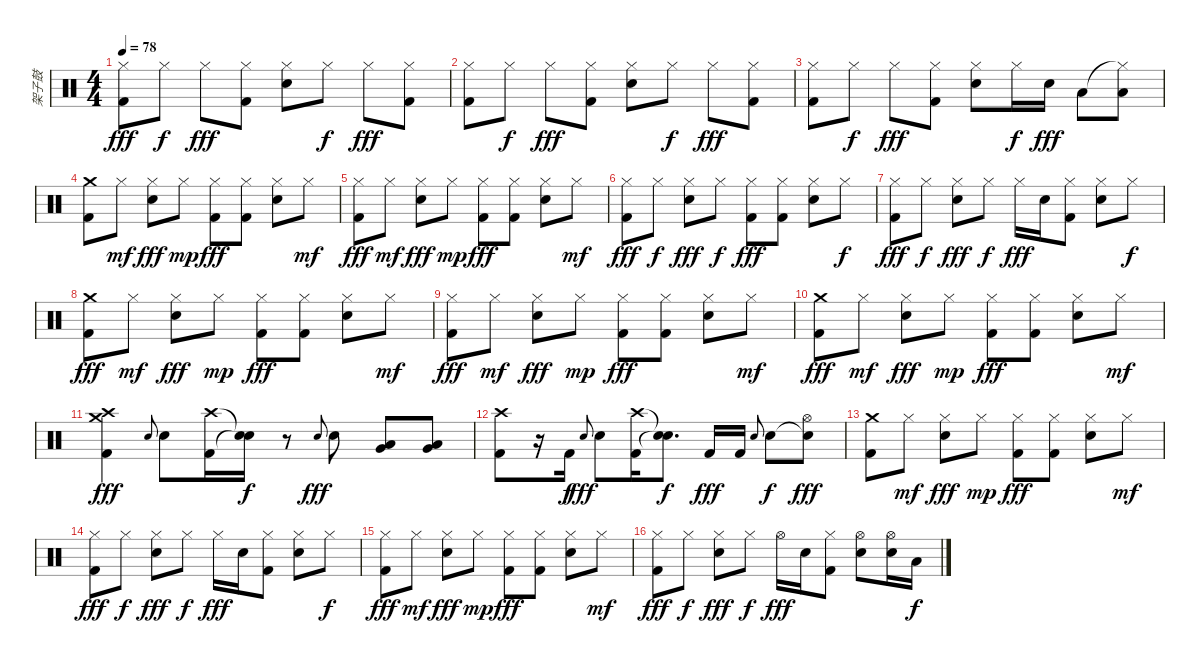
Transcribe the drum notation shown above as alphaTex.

\track ("架子鼓" "架子鼓") {instrument percussion}
\staff {score}
\articulation defaults
\ts (4 4)
\tempo 78
\clef neutral
\ks c
("Hi-Hat (closed)" "Kick (hit) 2").8{dy fff} "Hi-Hat (closed)".8{dy f} "Hi-Hat (closed)".8{dy fff} ("Hi-Hat (closed)" "Kick (hit) 2").8 ("Hi-Hat (closed)" "Electric Snare (hit)").8 "Hi-Hat (closed)".8{dy f} "Hi-Hat (closed)".8{dy fff} ("Hi-Hat (closed)" "Kick (hit) 2").8 |
("Hi-Hat (closed)" "Kick (hit) 2").8 "Hi-Hat (closed)".8{dy f} "Hi-Hat (closed)".8{dy fff} ("Hi-Hat (closed)" "Kick (hit) 2").8 ("Hi-Hat (closed)" "Electric Snare (hit)").8 "Hi-Hat (closed)".8{dy f} "Hi-Hat (closed)".8{dy fff} ("Hi-Hat (closed)" "Kick (hit) 2").8 |
("Hi-Hat (closed)" "Kick (hit) 2").8 "Hi-Hat (closed)".8{dy f} "Hi-Hat (closed)".8{dy fff} ("Hi-Hat (closed)" "Kick (hit) 2").8 ("Hi-Hat (closed)" "Electric Snare (hit)").8 "Hi-Hat (closed)".16{dy f} "Electric Snare (hit)".16{dy fff} "Low Tom (hit)".8 ("Hi-Hat (closed)"{t} "Low Floor Tom (hit)").8 |
("Crash medium (hit)" "Kick (hit) 2").8 "Hi-Hat (closed)".8{dy mf} ("Hi-Hat (closed)" "Electric Snare (hit)").8{dy fff} "Hi-Hat (closed)".8{dy mp} ("Hi-Hat (closed)" "Kick (hit) 2").8{dy fff} ("Hi-Hat (closed)" "Kick (hit) 2").8 ("Hi-Hat (closed)" "Electric Snare (hit)").8 "Hi-Hat (closed)".8{dy mf} |
("Hi-Hat (closed)" "Kick (hit) 2").8{dy fff} "Hi-Hat (closed)".8{dy mf} ("Hi-Hat (closed)" "Electric Snare (hit)").8{dy fff} "Hi-Hat (closed)".8{dy mp} ("Hi-Hat (closed)" "Kick (hit) 2").8{dy fff} ("Hi-Hat (closed)" "Kick (hit) 2").8 ("Hi-Hat (closed)" "Electric Snare (hit)").8 "Hi-Hat (closed)".8{dy mf} |
("Hi-Hat (closed)" "Kick (hit) 2").8{dy fff} "Hi-Hat (closed)".8{dy f} ("Hi-Hat (closed)" "Electric Snare (hit)").8{dy fff} "Hi-Hat (closed)".8{dy f} ("Hi-Hat (closed)" "Kick (hit) 2").8{dy fff} ("Hi-Hat (closed)" "Kick (hit) 2").8 ("Hi-Hat (closed)" "Electric Snare (hit)").8 "Hi-Hat (closed)".8{dy f} |
("Hi-Hat (closed)" "Kick (hit) 2").8{dy fff} "Hi-Hat (closed)".8{dy f} ("Hi-Hat (closed)" "Electric Snare (hit)").8{dy fff} "Hi-Hat (closed)".8{dy f} "Hi-Hat (closed)".16{dy fff} "Electric Snare (hit)".16 ("Hi-Hat (closed)" "Kick (hit) 2").8 ("Hi-Hat (closed)" "Electric Snare (hit)").8 "Hi-Hat (closed)".8{dy f} |
("Crash medium (hit)" "Kick (hit) 2").8{dy fff} "Hi-Hat (closed)".8{dy mf} ("Hi-Hat (closed)" "Electric Snare (hit)").8{dy fff} "Hi-Hat (closed)".8{dy mp} ("Hi-Hat (closed)" "Kick (hit) 2").8{dy fff} ("Hi-Hat (closed)" "Kick (hit) 2").8 ("Hi-Hat (closed)" "Electric Snare (hit)").8 "Hi-Hat (closed)".8{dy mf} |
("Hi-Hat (closed)" "Kick (hit) 2").8{dy fff} "Hi-Hat (closed)".8{dy mf} ("Hi-Hat (closed)" "Electric Snare (hit)").8{dy fff} "Hi-Hat (closed)".8{dy mp} ("Hi-Hat (closed)" "Kick (hit) 2").8{dy fff} ("Hi-Hat (closed)" "Kick (hit) 2").8 ("Hi-Hat (closed)" "Electric Snare (hit)").8 "Hi-Hat (closed)".8{dy mf} |
("Crash medium (hit)" "Kick (hit) 2").8{dy fff} "Hi-Hat (closed)".8{dy mf} ("Hi-Hat (closed)" "Electric Snare (hit)").8{dy fff} "Hi-Hat (closed)".8{dy mp} ("Hi-Hat (closed)" "Kick (hit) 2").8{dy fff} ("Hi-Hat (closed)" "Kick (hit) 2").8 ("Hi-Hat (closed)" "Electric Snare (hit)").8 "Hi-Hat (closed)".8{dy mf} |
("Crash medium (hit)" "Crash high (hit)" "Kick (hit) 2").4{dy fff} "Electric Snare (hit)".8{gr onbeat} "Electric Snare (hit)".8 ("Crash high (hit)" "Kick (hit) 2").16 ("Snare (hit)"{t} "Snare (hit)"{t}).16{dy f} r.8 "Electric Snare (hit)".8{gr onbeat dy fff} "Electric Snare (hit)".8 ("Low Tom (hit)" "Very Low Tom (hit)").8 ("Low Floor Tom (hit)" "Very Low Tom (hit)").8 |
("Crash high (hit)" "Kick (hit) 2").8 r.16 "Kick (hit) 2".16{dy f beam Down} "Electric Snare (hit)".8{gr onbeat dy fff} "Electric Snare (hit)".8 ("Crash high (hit)" "Kick (hit) 2").16 ("Snare (hit)"{t} "Snare (hit)"{t}).8{d dy f} "Kick (hit) 2".16{dy fff} "Kick (hit) 2".16 "Electric Snare (hit)".8{gr onbeat} "Electric Snare (hit)".8{dy f} ("Snare (hit)"{t} "Hi-Hat (open)").8{dy fff} |
("Crash medium (hit)" "Kick (hit) 2").8 "Hi-Hat (closed)".8{dy mf} ("Hi-Hat (closed)" "Electric Snare (hit)").8{dy fff} "Hi-Hat (closed)".8{dy mp} ("Hi-Hat (closed)" "Kick (hit) 2").8{dy fff} ("Hi-Hat (closed)" "Kick (hit) 2").8 ("Hi-Hat (closed)" "Electric Snare (hit)").8 "Hi-Hat (closed)".8{dy mf} |
("Hi-Hat (closed)" "Kick (hit) 2").8{dy fff} "Hi-Hat (closed)".8{dy f} ("Hi-Hat (closed)" "Electric Snare (hit)").8{dy fff} "Hi-Hat (closed)".8{dy f} "Hi-Hat (closed)".16{dy fff} "Electric Snare (hit)".16 ("Hi-Hat (closed)" "Kick (hit) 2").8 ("Hi-Hat (closed)" "Electric Snare (hit)").8 "Hi-Hat (closed)".8{dy f} |
("Hi-Hat (closed)" "Kick (hit) 2").8{dy fff} "Hi-Hat (closed)".8{dy mf} ("Hi-Hat (closed)" "Electric Snare (hit)").8{dy fff} "Hi-Hat (closed)".8{dy mp} ("Hi-Hat (closed)" "Kick (hit) 2").8{dy fff} ("Hi-Hat (closed)" "Kick (hit) 2").8 ("Hi-Hat (closed)" "Electric Snare (hit)").8 "Hi-Hat (closed)".8{dy mf} |
("Hi-Hat (closed)" "Kick (hit) 2").8{dy fff} "Hi-Hat (closed)".8{dy f} ("Hi-Hat (closed)" "Electric Snare (hit)").8{dy fff} "Hi-Hat (closed)".8{dy f} "Hi-Hat (open)".16{dy fff} "Electric Snare (hit)".16 ("Hi-Hat (closed)" "Kick (hit) 2").8 ("Hi-Hat (open)" "Electric Snare (hit)").8 ("Hi-Hat (open)" "Electric Snare (hit)").16 "Low Tom (hit)".16{dy f}
